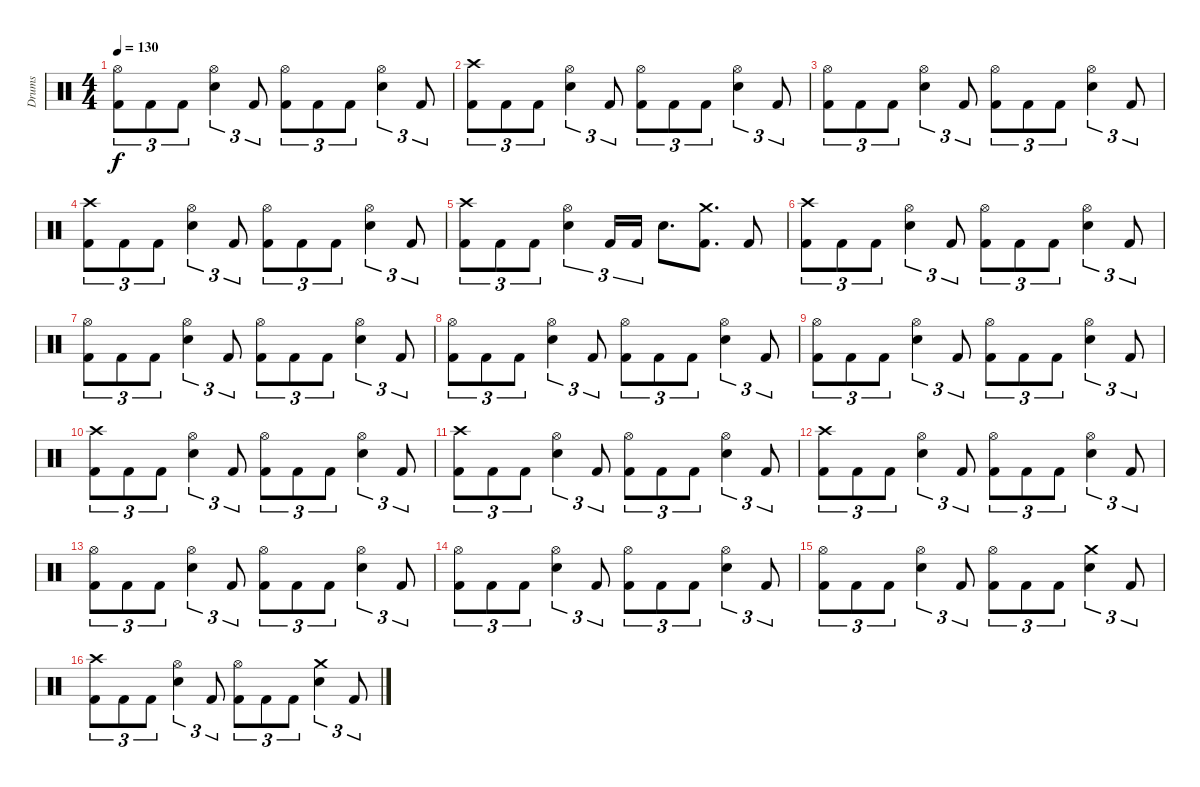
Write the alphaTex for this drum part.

\track ("Drums" "Drums") {instrument percussion}
\staff {score}
\articulation defaults
\ts (4 4)
\tempo 130
\clef neutral
\ks c
("Hi-Hat (open)" "Kick (hit) 2").8{tu (3 2) dy f} "Kick (hit) 2".8{tu (3 2)} "Kick (hit) 2".8{tu (3 2)} ("Hi-Hat (open)" "Electric Snare (hit)").4{tu (3 2)} "Kick (hit) 2".8{tu (3 2)} ("Hi-Hat (open)" "Kick (hit) 2").8{tu (3 2)} "Kick (hit) 2".8{tu (3 2)} "Kick (hit) 2".8{tu (3 2)} ("Hi-Hat (open)" "Electric Snare (hit)").4{tu (3 2)} "Kick (hit) 2".8{tu (3 2)} |
("Crash high (hit)" "Kick (hit) 2").8{tu (3 2)} "Kick (hit) 2".8{tu (3 2)} "Kick (hit) 2".8{tu (3 2)} ("Hi-Hat (open)" "Electric Snare (hit)").4{tu (3 2)} "Kick (hit) 2".8{tu (3 2)} ("Hi-Hat (open)" "Kick (hit) 2").8{tu (3 2)} "Kick (hit) 2".8{tu (3 2)} "Kick (hit) 2".8{tu (3 2)} ("Hi-Hat (open)" "Electric Snare (hit)").4{tu (3 2)} "Kick (hit) 2".8{tu (3 2)} |
("Hi-Hat (open)" "Kick (hit) 2").8{tu (3 2)} "Kick (hit) 2".8{tu (3 2)} "Kick (hit) 2".8{tu (3 2)} ("Hi-Hat (open)" "Electric Snare (hit)").4{tu (3 2)} "Kick (hit) 2".8{tu (3 2)} ("Hi-Hat (open)" "Kick (hit) 2").8{tu (3 2)} "Kick (hit) 2".8{tu (3 2)} "Kick (hit) 2".8{tu (3 2)} ("Hi-Hat (open)" "Electric Snare (hit)").4{tu (3 2)} "Kick (hit) 2".8{tu (3 2)} |
("Crash high (hit)" "Kick (hit) 2").8{tu (3 2)} "Kick (hit) 2".8{tu (3 2)} "Kick (hit) 2".8{tu (3 2)} ("Hi-Hat (open)" "Electric Snare (hit)").4{tu (3 2)} "Kick (hit) 2".8{tu (3 2)} ("Hi-Hat (open)" "Kick (hit) 2").8{tu (3 2)} "Kick (hit) 2".8{tu (3 2)} "Kick (hit) 2".8{tu (3 2)} ("Hi-Hat (open)" "Electric Snare (hit)").4{tu (3 2)} "Kick (hit) 2".8{tu (3 2)} |
("Crash high (hit)" "Kick (hit) 2").8{tu (3 2)} "Kick (hit) 2".8{tu (3 2)} "Kick (hit) 2".8{tu (3 2)} ("Hi-Hat (open)" "Electric Snare (hit)").4{tu (3 2)} "Kick (hit) 2".16{tu (3 2)} "Kick (hit) 2".16{tu (3 2)} "Electric Snare (hit)".8{d} ("Crash medium (hit)" "Kick (hit) 2").8{d} "Kick (hit) 2".8 |
("Crash high (hit)" "Kick (hit) 2").8{tu (3 2)} "Kick (hit) 2".8{tu (3 2)} "Kick (hit) 2".8{tu (3 2)} ("Hi-Hat (open)" "Electric Snare (hit)").4{tu (3 2)} "Kick (hit) 2".8{tu (3 2)} ("Hi-Hat (open)" "Kick (hit) 2").8{tu (3 2)} "Kick (hit) 2".8{tu (3 2)} "Kick (hit) 2".8{tu (3 2)} ("Hi-Hat (open)" "Electric Snare (hit)").4{tu (3 2)} "Kick (hit) 2".8{tu (3 2)} |
("Hi-Hat (open)" "Kick (hit) 2").8{tu (3 2)} "Kick (hit) 2".8{tu (3 2)} "Kick (hit) 2".8{tu (3 2)} ("Hi-Hat (open)" "Electric Snare (hit)").4{tu (3 2)} "Kick (hit) 2".8{tu (3 2)} ("Hi-Hat (open)" "Kick (hit) 2").8{tu (3 2)} "Kick (hit) 2".8{tu (3 2)} "Kick (hit) 2".8{tu (3 2)} ("Hi-Hat (open)" "Electric Snare (hit)").4{tu (3 2)} "Kick (hit) 2".8{tu (3 2)} |
("Hi-Hat (open)" "Kick (hit) 2").8{tu (3 2)} "Kick (hit) 2".8{tu (3 2)} "Kick (hit) 2".8{tu (3 2)} ("Hi-Hat (open)" "Electric Snare (hit)").4{tu (3 2)} "Kick (hit) 2".8{tu (3 2)} ("Hi-Hat (open)" "Kick (hit) 2").8{tu (3 2)} "Kick (hit) 2".8{tu (3 2)} "Kick (hit) 2".8{tu (3 2)} ("Hi-Hat (open)" "Electric Snare (hit)").4{tu (3 2)} "Kick (hit) 2".8{tu (3 2)} |
("Hi-Hat (open)" "Kick (hit) 2").8{tu (3 2)} "Kick (hit) 2".8{tu (3 2)} "Kick (hit) 2".8{tu (3 2)} ("Hi-Hat (open)" "Electric Snare (hit)").4{tu (3 2)} "Kick (hit) 2".8{tu (3 2)} ("Hi-Hat (open)" "Kick (hit) 2").8{tu (3 2)} "Kick (hit) 2".8{tu (3 2)} "Kick (hit) 2".8{tu (3 2)} ("Hi-Hat (open)" "Electric Snare (hit)").4{tu (3 2)} "Kick (hit) 2".8{tu (3 2)} |
("Crash high (hit)" "Kick (hit) 2").8{tu (3 2)} "Kick (hit) 2".8{tu (3 2)} "Kick (hit) 2".8{tu (3 2)} ("Hi-Hat (open)" "Electric Snare (hit)").4{tu (3 2)} "Kick (hit) 2".8{tu (3 2)} ("Hi-Hat (open)" "Kick (hit) 2").8{tu (3 2)} "Kick (hit) 2".8{tu (3 2)} "Kick (hit) 2".8{tu (3 2)} ("Hi-Hat (open)" "Electric Snare (hit)").4{tu (3 2)} "Kick (hit) 2".8{tu (3 2)} |
("Crash high (hit)" "Kick (hit) 2").8{tu (3 2)} "Kick (hit) 2".8{tu (3 2)} "Kick (hit) 2".8{tu (3 2)} ("Hi-Hat (open)" "Electric Snare (hit)").4{tu (3 2)} "Kick (hit) 2".8{tu (3 2)} ("Hi-Hat (open)" "Kick (hit) 2").8{tu (3 2)} "Kick (hit) 2".8{tu (3 2)} "Kick (hit) 2".8{tu (3 2)} ("Hi-Hat (open)" "Electric Snare (hit)").4{tu (3 2)} "Kick (hit) 2".8{tu (3 2)} |
("Crash high (hit)" "Kick (hit) 2").8{tu (3 2)} "Kick (hit) 2".8{tu (3 2)} "Kick (hit) 2".8{tu (3 2)} ("Hi-Hat (open)" "Electric Snare (hit)").4{tu (3 2)} "Kick (hit) 2".8{tu (3 2)} ("Hi-Hat (open)" "Kick (hit) 2").8{tu (3 2)} "Kick (hit) 2".8{tu (3 2)} "Kick (hit) 2".8{tu (3 2)} ("Hi-Hat (open)" "Electric Snare (hit)").4{tu (3 2)} "Kick (hit) 2".8{tu (3 2)} |
("Hi-Hat (open)" "Kick (hit) 2").8{tu (3 2)} "Kick (hit) 2".8{tu (3 2)} "Kick (hit) 2".8{tu (3 2)} ("Hi-Hat (open)" "Electric Snare (hit)").4{tu (3 2)} "Kick (hit) 2".8{tu (3 2)} ("Hi-Hat (open)" "Kick (hit) 2").8{tu (3 2)} "Kick (hit) 2".8{tu (3 2)} "Kick (hit) 2".8{tu (3 2)} ("Hi-Hat (open)" "Electric Snare (hit)").4{tu (3 2)} "Kick (hit) 2".8{tu (3 2)} |
("Hi-Hat (open)" "Kick (hit) 2").8{tu (3 2)} "Kick (hit) 2".8{tu (3 2)} "Kick (hit) 2".8{tu (3 2)} ("Hi-Hat (open)" "Electric Snare (hit)").4{tu (3 2)} "Kick (hit) 2".8{tu (3 2)} ("Hi-Hat (open)" "Kick (hit) 2").8{tu (3 2)} "Kick (hit) 2".8{tu (3 2)} "Kick (hit) 2".8{tu (3 2)} ("Hi-Hat (open)" "Electric Snare (hit)").4{tu (3 2)} "Kick (hit) 2".8{tu (3 2)} |
("Hi-Hat (open)" "Kick (hit) 2").8{tu (3 2)} "Kick (hit) 2".8{tu (3 2)} "Kick (hit) 2".8{tu (3 2)} ("Hi-Hat (open)" "Electric Snare (hit)").4{tu (3 2)} "Kick (hit) 2".8{tu (3 2)} ("Hi-Hat (open)" "Kick (hit) 2").8{tu (3 2)} "Kick (hit) 2".8{tu (3 2)} "Kick (hit) 2".8{tu (3 2)} ("Crash medium (hit)" "Electric Snare (hit)").4{tu (3 2)} "Kick (hit) 2".8{tu (3 2)} |
("Crash high (hit)" "Kick (hit) 2").8{tu (3 2)} "Kick (hit) 2".8{tu (3 2)} "Kick (hit) 2".8{tu (3 2)} ("Hi-Hat (open)" "Electric Snare (hit)").4{tu (3 2)} "Kick (hit) 2".8{tu (3 2)} ("Hi-Hat (open)" "Kick (hit) 2").8{tu (3 2)} "Kick (hit) 2".8{tu (3 2)} "Kick (hit) 2".8{tu (3 2)} ("Crash medium (hit)" "Electric Snare (hit)").4{tu (3 2)} "Kick (hit) 2".8{tu (3 2)}
